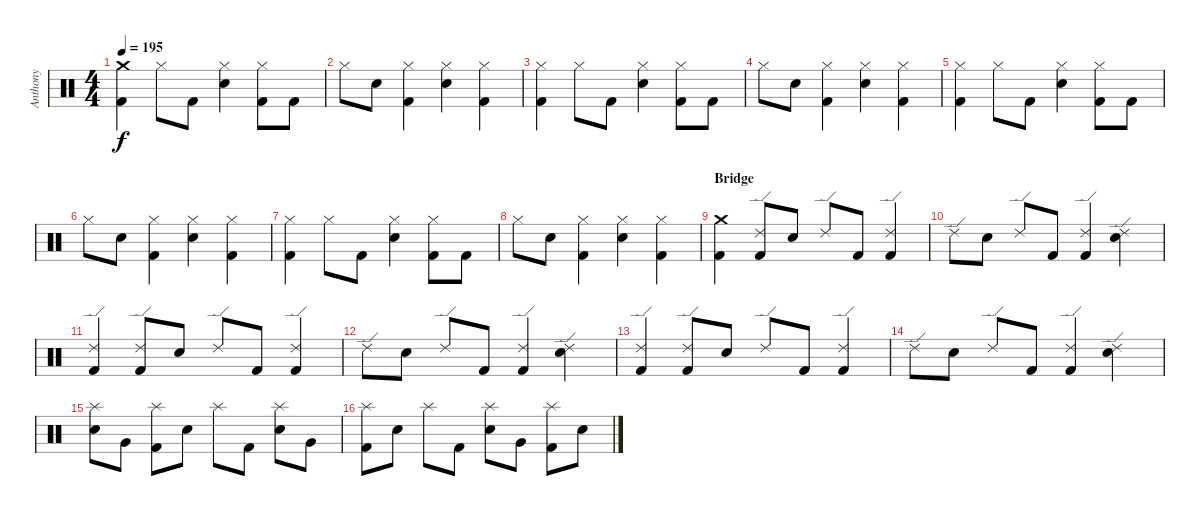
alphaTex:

\track ("Anthony" "Anthony") {instrument percussion}
\staff {score}
\articulation defaults
\ts (4 4)
\tempo 195
\clef neutral
\ks c
("Crash medium (hit)" "Kick (hit) 2").4{dy f} "Hi-Hat (closed)".8 "Kick (hit) 2".8 ("Hi-Hat (closed)" "Electric Snare (hit)").4 ("Hi-Hat (closed)" "Kick (hit) 2").8 "Kick (hit) 2".8 |
"Hi-Hat (closed)".8 "Electric Snare (hit)".8 ("Hi-Hat (closed)" "Kick (hit) 2").4 ("Hi-Hat (closed)" "Electric Snare (hit)").4 ("Hi-Hat (closed)" "Kick (hit) 2").4 |
("Hi-Hat (closed)" "Kick (hit) 2").4 "Hi-Hat (closed)".8 "Kick (hit) 2".8 ("Hi-Hat (closed)" "Electric Snare (hit)").4 ("Hi-Hat (closed)" "Kick (hit) 2").8 "Kick (hit) 2".8 |
"Hi-Hat (closed)".8 "Electric Snare (hit)".8 ("Hi-Hat (closed)" "Kick (hit) 2").4 ("Hi-Hat (closed)" "Electric Snare (hit)").4 ("Hi-Hat (closed)" "Kick (hit) 2").4 |
("Hi-Hat (closed)" "Kick (hit) 2").4 "Hi-Hat (closed)".8 "Kick (hit) 2".8 ("Hi-Hat (closed)" "Electric Snare (hit)").4 ("Hi-Hat (closed)" "Kick (hit) 2").8 "Kick (hit) 2".8 |
"Hi-Hat (closed)".8 "Electric Snare (hit)".8 ("Hi-Hat (closed)" "Kick (hit) 2").4 ("Hi-Hat (closed)" "Electric Snare (hit)").4 ("Hi-Hat (closed)" "Kick (hit) 2").4 |
("Hi-Hat (closed)" "Kick (hit) 2").4 "Hi-Hat (closed)".8 "Kick (hit) 2".8 ("Hi-Hat (closed)" "Electric Snare (hit)").4 ("Hi-Hat (closed)" "Kick (hit) 2").8 "Kick (hit) 2".8 |
"Hi-Hat (closed)".8 "Electric Snare (hit)".8 ("Hi-Hat (closed)" "Kick (hit) 2").4 ("Hi-Hat (closed)" "Electric Snare (hit)").4 ("Hi-Hat (closed)" "Kick (hit) 2").4 |
\section ("" "Bridge")
("Crash medium (hit)" "Kick (hit) 2").4 ("Ride (edge) 2" "Kick (hit) 2").8 "Electric Snare (hit)".8 "Ride (edge) 2".8 "Kick (hit) 2".8 ("Ride (edge) 2" "Kick (hit) 2").4 |
"Ride (edge) 2".8 "Electric Snare (hit)".8 "Ride (edge) 2".8 "Kick (hit) 2".8 ("Ride (edge) 2" "Kick (hit) 2").4 ("Ride (edge) 2" "Electric Snare (hit)").4 |
("Ride (edge) 2" "Kick (hit) 2").4 ("Ride (edge) 2" "Kick (hit) 2").8 "Electric Snare (hit)".8 "Ride (edge) 2".8 "Kick (hit) 2".8 ("Ride (edge) 2" "Kick (hit) 2").4 |
"Ride (edge) 2".8 "Electric Snare (hit)".8 "Ride (edge) 2".8 "Kick (hit) 2".8 ("Ride (edge) 2" "Kick (hit) 2").4 ("Ride (edge) 2" "Electric Snare (hit)").4 |
("Ride (edge) 2" "Kick (hit) 2").4 ("Ride (edge) 2" "Kick (hit) 2").8 "Electric Snare (hit)".8 "Ride (edge) 2".8 "Kick (hit) 2".8 ("Ride (edge) 2" "Kick (hit) 2").4 |
"Ride (edge) 2".8 "Electric Snare (hit)".8 "Ride (edge) 2".8 "Kick (hit) 2".8 ("Ride (edge) 2" "Kick (hit) 2").4 ("Ride (edge) 2" "Electric Snare (hit)").4 |
("Splash (hit)" "Electric Snare (hit)").8 "Very Low Tom (hit)".8 ("Splash (hit)" "Kick (hit) 2").8 "Electric Snare (hit)".8 "Splash (hit)".8 "Kick (hit) 2".8 ("Splash (hit)" "Electric Snare (hit)").8 "Very Low Tom (hit)".8 |
("Splash (hit)" "Kick (hit) 2").8 "Electric Snare (hit)".8 "Splash (hit)".8 "Kick (hit) 2".8 ("Splash (hit)" "Electric Snare (hit)").8 "Very Low Tom (hit)".8 ("Splash (hit)" "Kick (hit) 2").8 "Electric Snare (hit)".8
